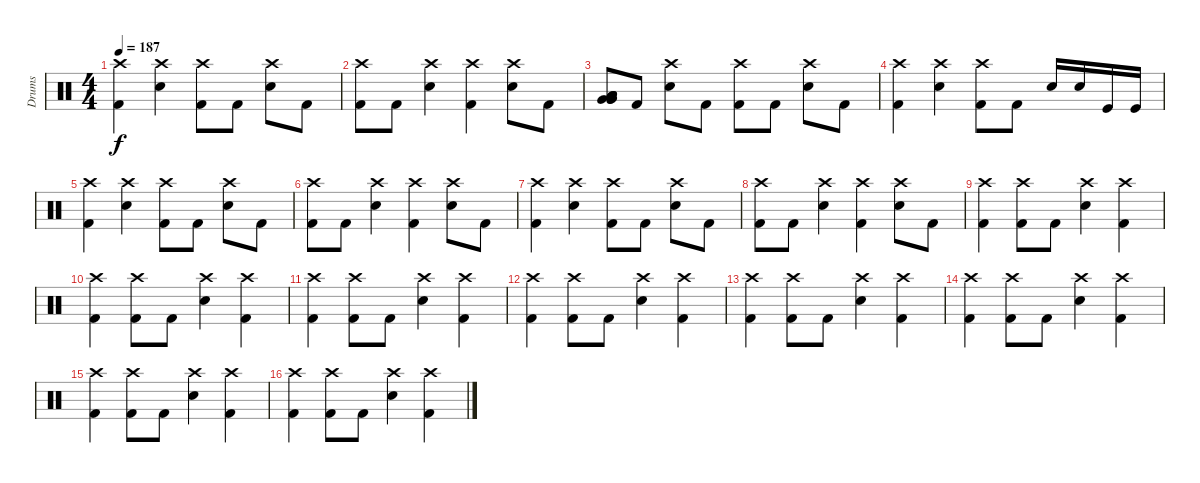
\track ("Drums" "Drums") {instrument percussion}
\staff {score}
\articulation defaults
\ts (4 4)
\tempo 187
\clef neutral
\ks c
("Crash high (hit)" "Kick (hit) 2").4{dy f} ("Crash high (hit)" "Electric Snare (hit)").4 ("Crash high (hit)" "Kick (hit) 2").8 "Kick (hit) 2".8 ("Crash high (hit)" "Electric Snare (hit)").8 "Kick (hit) 2".8 |
("Crash high (hit)" "Kick (hit) 2").8 "Kick (hit) 2".8 ("Crash high (hit)" "Electric Snare (hit)").4 ("Crash high (hit)" "Kick (hit) 2").4 ("Crash high (hit)" "Electric Snare (hit)").8 "Kick (hit) 2".8 |
("Low Tom (hit)" "Low Tom (hit)" "Low Tom (hit)" "Very Low Tom (hit)" "Very Low Tom (hit)" "Very Low Tom (hit)").8 "Kick (hit) 2".8 ("Crash high (hit)" "Electric Snare (hit)").8 "Kick (hit) 2".8 ("Crash high (hit)" "Kick (hit) 2").8 "Kick (hit) 2".8 ("Crash high (hit)" "Electric Snare (hit)").8 "Kick (hit) 2".8 |
("Crash high (hit)" "Kick (hit) 2").4 ("Crash high (hit)" "Electric Snare (hit)").4 ("Crash high (hit)" "Kick (hit) 2").8 "Kick (hit) 2".8 "Electric Snare (hit)".16 "Electric Snare (hit)".16 "Kick (hit)".16 "Kick (hit)".16 |
("Crash high (hit)" "Kick (hit) 2").4 ("Crash high (hit)" "Electric Snare (hit)").4 ("Crash high (hit)" "Kick (hit) 2").8 "Kick (hit) 2".8 ("Crash high (hit)" "Electric Snare (hit)").8 "Kick (hit) 2".8 |
("Crash high (hit)" "Kick (hit) 2").8 "Kick (hit) 2".8 ("Crash high (hit)" "Electric Snare (hit)").4 ("Crash high (hit)" "Kick (hit) 2").4 ("Crash high (hit)" "Electric Snare (hit)").8 "Kick (hit) 2".8 |
("Crash high (hit)" "Kick (hit) 2").4 ("Crash high (hit)" "Electric Snare (hit)").4 ("Crash high (hit)" "Kick (hit) 2").8 "Kick (hit) 2".8 ("Crash high (hit)" "Electric Snare (hit)").8 "Kick (hit) 2".8 |
("Crash high (hit)" "Kick (hit) 2").8 "Kick (hit) 2".8 ("Crash high (hit)" "Electric Snare (hit)").4 ("Crash high (hit)" "Kick (hit) 2").4 ("Crash high (hit)" "Electric Snare (hit)").8 "Kick (hit) 2".8 |
("Crash high (hit)" "Kick (hit) 2").4 ("Crash high (hit)" "Kick (hit) 2").8 "Kick (hit) 2".8 ("Crash high (hit)" "Electric Snare (hit)").4 ("Crash high (hit)" "Kick (hit) 2").4 |
("Crash high (hit)" "Kick (hit) 2").4 ("Crash high (hit)" "Kick (hit) 2").8 "Kick (hit) 2".8 ("Crash high (hit)" "Electric Snare (hit)").4 ("Crash high (hit)" "Kick (hit) 2").4 |
("Crash high (hit)" "Kick (hit) 2").4 ("Crash high (hit)" "Kick (hit) 2").8 "Kick (hit) 2".8 ("Crash high (hit)" "Electric Snare (hit)").4 ("Crash high (hit)" "Kick (hit) 2").4 |
("Crash high (hit)" "Kick (hit) 2").4 ("Crash high (hit)" "Kick (hit) 2").8 "Kick (hit) 2".8 ("Crash high (hit)" "Electric Snare (hit)").4 ("Crash high (hit)" "Kick (hit) 2").4 |
("Crash high (hit)" "Kick (hit) 2").4 ("Crash high (hit)" "Kick (hit) 2").8 "Kick (hit) 2".8 ("Crash high (hit)" "Electric Snare (hit)").4 ("Crash high (hit)" "Kick (hit) 2").4 |
("Crash high (hit)" "Kick (hit) 2").4 ("Crash high (hit)" "Kick (hit) 2").8 "Kick (hit) 2".8 ("Crash high (hit)" "Electric Snare (hit)").4 ("Crash high (hit)" "Kick (hit) 2").4 |
("Crash high (hit)" "Kick (hit) 2").4 ("Crash high (hit)" "Kick (hit) 2").8 "Kick (hit) 2".8 ("Crash high (hit)" "Electric Snare (hit)").4 ("Crash high (hit)" "Kick (hit) 2").4 |
("Crash high (hit)" "Kick (hit) 2").4 ("Crash high (hit)" "Kick (hit) 2").8 "Kick (hit) 2".8 ("Crash high (hit)" "Electric Snare (hit)").4 ("Crash high (hit)" "Kick (hit) 2").4
